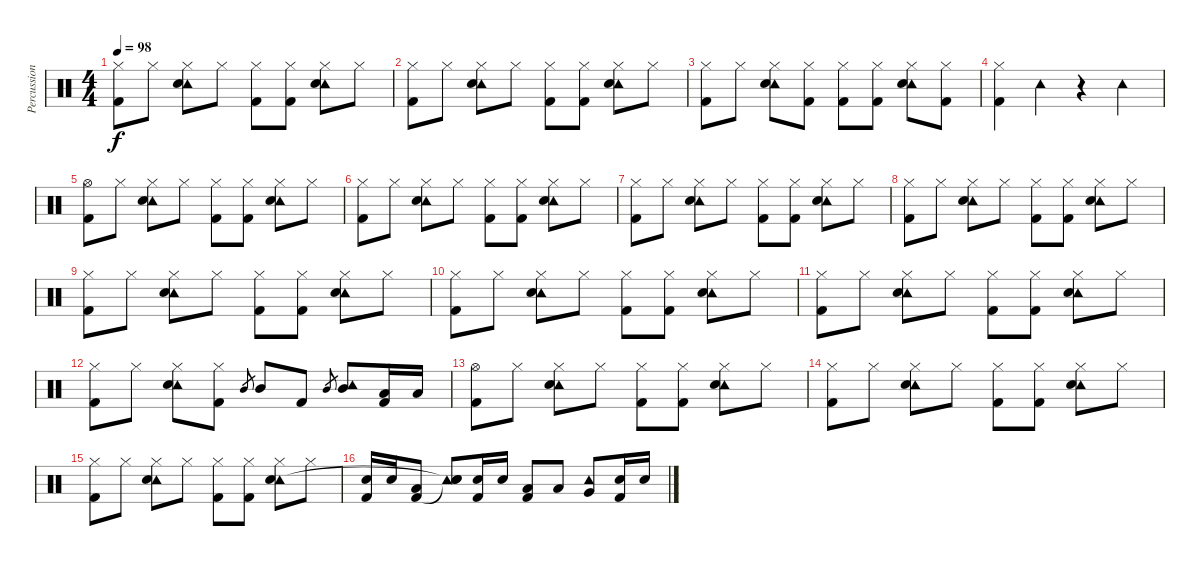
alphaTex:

\track ("Percussion" "Percussion") {instrument percussion}
\staff {score}
\articulation defaults
\ts (4 4)
\tempo 98
\clef neutral
\ks c
("Hi-Hat (closed)" "Kick (hit) 2").8{dy f} "Hi-Hat (closed)".8 ("Tambourine (hit)" "Hi-Hat (closed)" "Snare (hit) 2").8 "Hi-Hat (closed)".8 ("Hi-Hat (closed)" "Kick (hit) 2").8 ("Hi-Hat (closed)" "Kick (hit) 2").8 ("Tambourine (hit)" "Hi-Hat (closed)" "Snare (hit) 2").8 "Hi-Hat (closed)".8 |
("Hi-Hat (closed)" "Kick (hit) 2").8 "Hi-Hat (closed)".8 ("Tambourine (hit)" "Hi-Hat (closed)" "Snare (hit) 2").8 "Hi-Hat (closed)".8 ("Hi-Hat (closed)" "Kick (hit) 2").8 ("Hi-Hat (closed)" "Kick (hit) 2").8 ("Tambourine (hit)" "Hi-Hat (closed)" "Snare (hit) 2").8 "Hi-Hat (closed)".8 |
("Hi-Hat (closed)" "Kick (hit) 2").8 "Hi-Hat (closed)".8 ("Tambourine (hit)" "Hi-Hat (closed)" "Snare (hit) 2").8 ("Hi-Hat (closed)" "Kick (hit) 2").8 ("Hi-Hat (closed)" "Kick (hit) 2").8 ("Hi-Hat (closed)" "Kick (hit) 2").8 ("Tambourine (hit)" "Hi-Hat (closed)" "Snare (hit) 2").8 ("Hi-Hat (closed)" "Kick (hit) 2").8 |
("Hi-Hat (closed)" "Kick (hit) 2").4 "Tambourine (hit)".4 r.4 "Tambourine (hit)".4 |
("Hi-Hat (open)" "Kick (hit) 2").8 "Hi-Hat (closed)".8 ("Tambourine (hit)" "Hi-Hat (closed)" "Snare (hit) 2").8 "Hi-Hat (closed)".8 ("Hi-Hat (closed)" "Kick (hit) 2").8 ("Hi-Hat (closed)" "Kick (hit) 2").8 ("Tambourine (hit)" "Hi-Hat (closed)" "Snare (hit) 2").8 "Hi-Hat (closed)".8 |
("Hi-Hat (closed)" "Kick (hit) 2").8 "Hi-Hat (closed)".8 ("Tambourine (hit)" "Hi-Hat (closed)" "Snare (hit) 2").8 "Hi-Hat (closed)".8 ("Hi-Hat (closed)" "Kick (hit) 2").8 ("Hi-Hat (closed)" "Kick (hit) 2").8 ("Tambourine (hit)" "Hi-Hat (closed)" "Snare (hit) 2").8 "Hi-Hat (closed)".8 |
("Hi-Hat (closed)" "Kick (hit) 2").8 "Hi-Hat (closed)".8 ("Tambourine (hit)" "Hi-Hat (closed)" "Snare (hit) 2").8 "Hi-Hat (closed)".8 ("Hi-Hat (closed)" "Kick (hit) 2").8 ("Hi-Hat (closed)" "Kick (hit) 2").8 ("Tambourine (hit)" "Hi-Hat (closed)" "Snare (hit) 2").8 "Hi-Hat (closed)".8 |
("Hi-Hat (closed)" "Kick (hit) 2").8 "Hi-Hat (closed)".8 ("Tambourine (hit)" "Hi-Hat (closed)" "Snare (hit) 2").8 "Hi-Hat (closed)".8 ("Hi-Hat (closed)" "Kick (hit) 2").8 ("Hi-Hat (closed)" "Kick (hit) 2").8 ("Tambourine (hit)" "Hi-Hat (closed)" "Snare (hit) 2").8 "Hi-Hat (closed)".8 |
("Hi-Hat (closed)" "Kick (hit) 2").8 "Hi-Hat (closed)".8 ("Tambourine (hit)" "Hi-Hat (closed)" "Snare (hit) 2").8 "Hi-Hat (closed)".8 ("Hi-Hat (closed)" "Kick (hit) 2").8 ("Hi-Hat (closed)" "Kick (hit) 2").8 ("Tambourine (hit)" "Hi-Hat (closed)" "Snare (hit) 2").8 "Hi-Hat (closed)".8 |
("Hi-Hat (closed)" "Kick (hit) 2").8 "Hi-Hat (closed)".8 ("Tambourine (hit)" "Hi-Hat (closed)" "Snare (hit) 2").8 "Hi-Hat (closed)".8 ("Hi-Hat (closed)" "Kick (hit) 2").8 ("Hi-Hat (closed)" "Kick (hit) 2").8 ("Tambourine (hit)" "Hi-Hat (closed)" "Snare (hit) 2").8 "Hi-Hat (closed)".8 |
("Hi-Hat (closed)" "Kick (hit) 2").8 "Hi-Hat (closed)".8 ("Tambourine (hit)" "Hi-Hat (closed)" "Snare (hit) 2").8 "Hi-Hat (closed)".8 ("Hi-Hat (closed)" "Kick (hit) 2").8 ("Hi-Hat (closed)" "Kick (hit) 2").8 ("Tambourine (hit)" "Hi-Hat (closed)" "Snare (hit) 2").8 "Hi-Hat (closed)".8 |
("Hi-Hat (closed)" "Kick (hit) 2").8 "Hi-Hat (closed)".8 ("Tambourine (hit)" "Hi-Hat (closed)" "Snare (hit) 2").8 ("Hi-Hat (closed)" "Kick (hit) 2").8 "Mid Tom (hit)".8{gr} "Mid Tom (hit)".8 "Kick (hit) 2".8 "Mid Tom (hit)".8{gr} ("Tambourine (hit)" "Mid Tom (hit)").8 ("Low Tom (hit)" "Kick (hit) 2").16 "Low Tom (hit)".16 |
("Hi-Hat (open)" "Kick (hit) 2").8 "Hi-Hat (closed)".8 ("Tambourine (hit)" "Hi-Hat (closed)" "Snare (hit) 2").8 "Hi-Hat (closed)".8 ("Hi-Hat (closed)" "Kick (hit) 2").8 ("Hi-Hat (closed)" "Kick (hit) 2").8 ("Tambourine (hit)" "Hi-Hat (closed)" "Snare (hit) 2").8 "Hi-Hat (closed)".8 |
("Hi-Hat (closed)" "Kick (hit) 2").8 "Hi-Hat (closed)".8 ("Tambourine (hit)" "Hi-Hat (closed)" "Snare (hit) 2").8 "Hi-Hat (closed)".8 ("Hi-Hat (closed)" "Kick (hit) 2").8 ("Hi-Hat (closed)" "Kick (hit) 2").8 ("Tambourine (hit)" "Hi-Hat (closed)" "Snare (hit) 2").8 "Hi-Hat (closed)".8 |
("Hi-Hat (closed)" "Kick (hit) 2").8 "Hi-Hat (closed)".8 ("Tambourine (hit)" "Hi-Hat (closed)" "Snare (hit) 2").8 "Hi-Hat (closed)".8 ("Hi-Hat (closed)" "Kick (hit) 2").8 ("Hi-Hat (closed)" "Kick (hit) 2").8 ("Tambourine (hit)" "Hi-Hat (closed)" "Snare (hit) 2").8 "Hi-Hat (closed)".8 |
("Snare (hit) 2" "Kick (hit) 2").16 "Snare (hit) 2".16 ("Low Tom (hit)" "Kick (hit) 2").8 ("Tambourine (hit)" "Snare (hit)"{t} "Snare (hit)"{t}).8 ("Snare (hit) 2" "Kick (hit) 2").16 "Snare (hit) 2".16 ("Low Tom (hit)" "Kick (hit) 2").8 "Low Tom (hit)".8 ("Tambourine (hit)" "Very Low Tom (hit)").8 ("Snare (hit) 2" "Kick (hit) 2").16 "Snare (hit) 2".16
